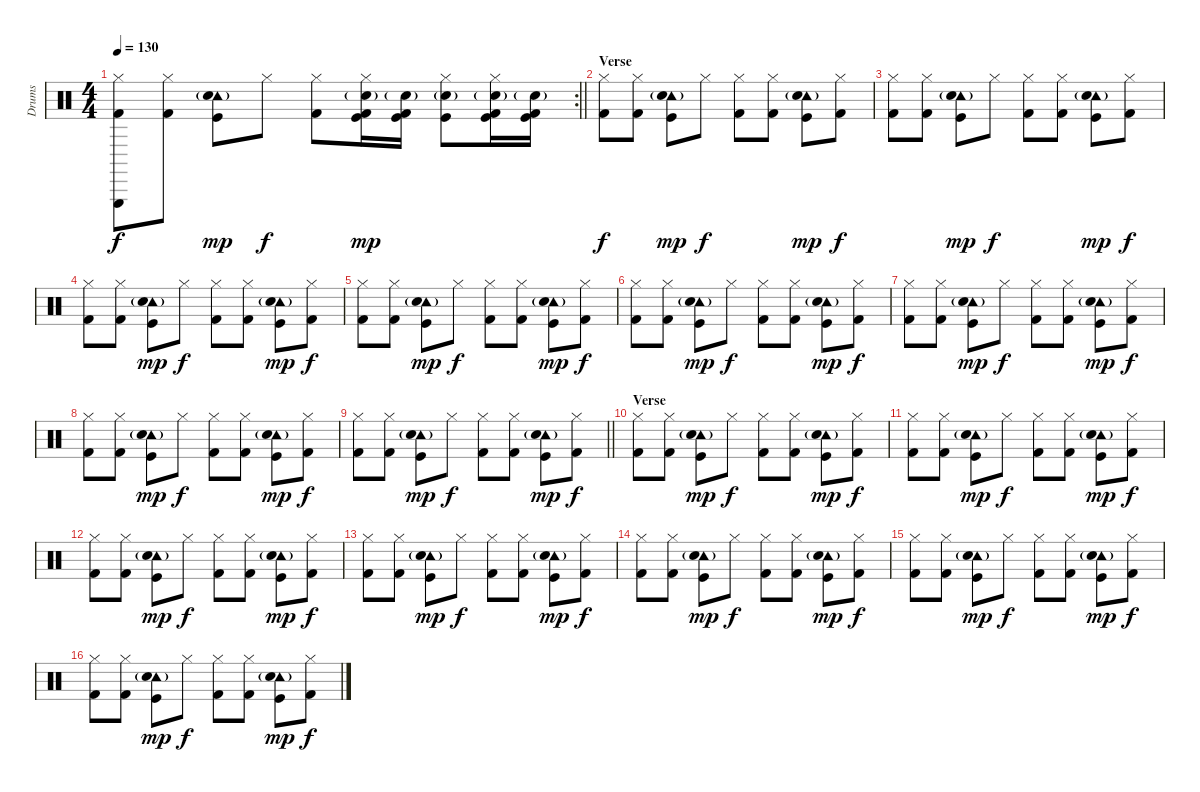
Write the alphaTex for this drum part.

\track ("Drums" "Drums") {instrument percussion}
\staff {score}
\articulation defaults
\rc 2
\ts (4 4)
\tempo 130
\clef neutral
\barLineRight lightlight
\ks c
("Hi-Hat (closed)" "Triangle (hit)" "Kick (hit) 2").8{dy f} ("Hi-Hat (closed)" "Kick (hit) 2").8 ("Tambourine (hit)" "Snare (hit) 2"{g} "Kick (hit)").8{dy mp} "Hi-Hat (closed)".8{dy f} ("Hi-Hat (closed)" "Kick (hit) 2").8 ("Hi-Hat (closed)" "Snare (hit) 2"{g} "Kick (hit)" "Kick (hit) 2").16{dy mp} ("Snare (hit) 2"{g} "Kick (hit)" "Kick (hit) 2").16 ("Hi-Hat (closed)" "Snare (hit) 2"{g} "Kick (hit)").8 ("Hi-Hat (closed)" "Snare (hit) 2"{g} "Kick (hit)" "Kick (hit) 2").16 ("Snare (hit) 2"{g} "Kick (hit)" "Kick (hit) 2").16 |
\section ("" "Verse")
("Hi-Hat (closed)" "Kick (hit) 2").8{dy f} ("Hi-Hat (closed)" "Kick (hit) 2").8 ("Tambourine (hit)" "Snare (hit) 2"{g} "Kick (hit)").8{dy mp} "Hi-Hat (closed)".8{dy f} ("Hi-Hat (closed)" "Kick (hit) 2").8 ("Hi-Hat (closed)" "Kick (hit) 2").8 ("Tambourine (hit)" "Snare (hit) 2"{g} "Kick (hit)").8{dy mp} ("Hi-Hat (closed)" "Kick (hit) 2").8{dy f} |
("Hi-Hat (closed)" "Kick (hit) 2").8 ("Hi-Hat (closed)" "Kick (hit) 2").8 ("Tambourine (hit)" "Snare (hit) 2"{g} "Kick (hit)").8{dy mp} "Hi-Hat (closed)".8{dy f} ("Hi-Hat (closed)" "Kick (hit) 2").8 ("Hi-Hat (closed)" "Kick (hit) 2").8 ("Tambourine (hit)" "Snare (hit) 2"{g} "Kick (hit)").8{dy mp} ("Hi-Hat (closed)" "Kick (hit) 2").8{dy f} |
("Hi-Hat (closed)" "Kick (hit) 2").8 ("Hi-Hat (closed)" "Kick (hit) 2").8 ("Tambourine (hit)" "Snare (hit) 2"{g} "Kick (hit)").8{dy mp} "Hi-Hat (closed)".8{dy f} ("Hi-Hat (closed)" "Kick (hit) 2").8 ("Hi-Hat (closed)" "Kick (hit) 2").8 ("Tambourine (hit)" "Snare (hit) 2"{g} "Kick (hit)").8{dy mp} ("Hi-Hat (closed)" "Kick (hit) 2").8{dy f} |
("Hi-Hat (closed)" "Kick (hit) 2").8 ("Hi-Hat (closed)" "Kick (hit) 2").8 ("Tambourine (hit)" "Snare (hit) 2"{g} "Kick (hit)").8{dy mp} "Hi-Hat (closed)".8{dy f} ("Hi-Hat (closed)" "Kick (hit) 2").8 ("Hi-Hat (closed)" "Kick (hit) 2").8 ("Tambourine (hit)" "Snare (hit) 2"{g} "Kick (hit)").8{dy mp} ("Hi-Hat (closed)" "Kick (hit) 2").8{dy f} |
("Hi-Hat (closed)" "Kick (hit) 2").8 ("Hi-Hat (closed)" "Kick (hit) 2").8 ("Tambourine (hit)" "Snare (hit) 2"{g} "Kick (hit)").8{dy mp} "Hi-Hat (closed)".8{dy f} ("Hi-Hat (closed)" "Kick (hit) 2").8 ("Hi-Hat (closed)" "Kick (hit) 2").8 ("Tambourine (hit)" "Snare (hit) 2"{g} "Kick (hit)").8{dy mp} ("Hi-Hat (closed)" "Kick (hit) 2").8{dy f} |
("Hi-Hat (closed)" "Kick (hit) 2").8 ("Hi-Hat (closed)" "Kick (hit) 2").8 ("Tambourine (hit)" "Snare (hit) 2"{g} "Kick (hit)").8{dy mp} "Hi-Hat (closed)".8{dy f} ("Hi-Hat (closed)" "Kick (hit) 2").8 ("Hi-Hat (closed)" "Kick (hit) 2").8 ("Tambourine (hit)" "Snare (hit) 2"{g} "Kick (hit)").8{dy mp} ("Hi-Hat (closed)" "Kick (hit) 2").8{dy f} |
("Hi-Hat (closed)" "Kick (hit) 2").8 ("Hi-Hat (closed)" "Kick (hit) 2").8 ("Tambourine (hit)" "Snare (hit) 2"{g} "Kick (hit)").8{dy mp} "Hi-Hat (closed)".8{dy f} ("Hi-Hat (closed)" "Kick (hit) 2").8 ("Hi-Hat (closed)" "Kick (hit) 2").8 ("Tambourine (hit)" "Snare (hit) 2"{g} "Kick (hit)").8{dy mp} ("Hi-Hat (closed)" "Kick (hit) 2").8{dy f} |
\barLineRight lightlight
("Hi-Hat (closed)" "Kick (hit) 2").8 ("Hi-Hat (closed)" "Kick (hit) 2").8 ("Tambourine (hit)" "Snare (hit) 2"{g} "Kick (hit)").8{dy mp} "Hi-Hat (closed)".8{dy f} ("Hi-Hat (closed)" "Kick (hit) 2").8 ("Hi-Hat (closed)" "Kick (hit) 2").8 ("Tambourine (hit)" "Snare (hit) 2"{g} "Kick (hit)").8{dy mp} ("Hi-Hat (closed)" "Kick (hit) 2").8{dy f} |
\section ("" "Verse")
("Hi-Hat (closed)" "Kick (hit) 2").8 ("Hi-Hat (closed)" "Kick (hit) 2").8 ("Tambourine (hit)" "Snare (hit) 2"{g} "Kick (hit)").8{dy mp} "Hi-Hat (closed)".8{dy f} ("Hi-Hat (closed)" "Kick (hit) 2").8 ("Hi-Hat (closed)" "Kick (hit) 2").8 ("Tambourine (hit)" "Snare (hit) 2"{g} "Kick (hit)").8{dy mp} ("Hi-Hat (closed)" "Kick (hit) 2").8{dy f} |
("Hi-Hat (closed)" "Kick (hit) 2").8 ("Hi-Hat (closed)" "Kick (hit) 2").8 ("Tambourine (hit)" "Snare (hit) 2"{g} "Kick (hit)").8{dy mp} "Hi-Hat (closed)".8{dy f} ("Hi-Hat (closed)" "Kick (hit) 2").8 ("Hi-Hat (closed)" "Kick (hit) 2").8 ("Tambourine (hit)" "Snare (hit) 2"{g} "Kick (hit)").8{dy mp} ("Hi-Hat (closed)" "Kick (hit) 2").8{dy f} |
("Hi-Hat (closed)" "Kick (hit) 2").8 ("Hi-Hat (closed)" "Kick (hit) 2").8 ("Tambourine (hit)" "Snare (hit) 2"{g} "Kick (hit)").8{dy mp} "Hi-Hat (closed)".8{dy f} ("Hi-Hat (closed)" "Kick (hit) 2").8 ("Hi-Hat (closed)" "Kick (hit) 2").8 ("Tambourine (hit)" "Snare (hit) 2"{g} "Kick (hit)").8{dy mp} ("Hi-Hat (closed)" "Kick (hit) 2").8{dy f} |
("Hi-Hat (closed)" "Kick (hit) 2").8 ("Hi-Hat (closed)" "Kick (hit) 2").8 ("Tambourine (hit)" "Snare (hit) 2"{g} "Kick (hit)").8{dy mp} "Hi-Hat (closed)".8{dy f} ("Hi-Hat (closed)" "Kick (hit) 2").8 ("Hi-Hat (closed)" "Kick (hit) 2").8 ("Tambourine (hit)" "Snare (hit) 2"{g} "Kick (hit)").8{dy mp} ("Hi-Hat (closed)" "Kick (hit) 2").8{dy f} |
("Hi-Hat (closed)" "Kick (hit) 2").8 ("Hi-Hat (closed)" "Kick (hit) 2").8 ("Tambourine (hit)" "Snare (hit) 2"{g} "Kick (hit)").8{dy mp} "Hi-Hat (closed)".8{dy f} ("Hi-Hat (closed)" "Kick (hit) 2").8 ("Hi-Hat (closed)" "Kick (hit) 2").8 ("Tambourine (hit)" "Snare (hit) 2"{g} "Kick (hit)").8{dy mp} ("Hi-Hat (closed)" "Kick (hit) 2").8{dy f} |
("Hi-Hat (closed)" "Kick (hit) 2").8 ("Hi-Hat (closed)" "Kick (hit) 2").8 ("Tambourine (hit)" "Snare (hit) 2"{g} "Kick (hit)").8{dy mp} "Hi-Hat (closed)".8{dy f} ("Hi-Hat (closed)" "Kick (hit) 2").8 ("Hi-Hat (closed)" "Kick (hit) 2").8 ("Tambourine (hit)" "Snare (hit) 2"{g} "Kick (hit)").8{dy mp} ("Hi-Hat (closed)" "Kick (hit) 2").8{dy f} |
("Hi-Hat (closed)" "Kick (hit) 2").8 ("Hi-Hat (closed)" "Kick (hit) 2").8 ("Tambourine (hit)" "Snare (hit) 2"{g} "Kick (hit)").8{dy mp} "Hi-Hat (closed)".8{dy f} ("Hi-Hat (closed)" "Kick (hit) 2").8 ("Hi-Hat (closed)" "Kick (hit) 2").8 ("Tambourine (hit)" "Snare (hit) 2"{g} "Kick (hit)").8{dy mp} ("Hi-Hat (closed)" "Kick (hit) 2").8{dy f}
